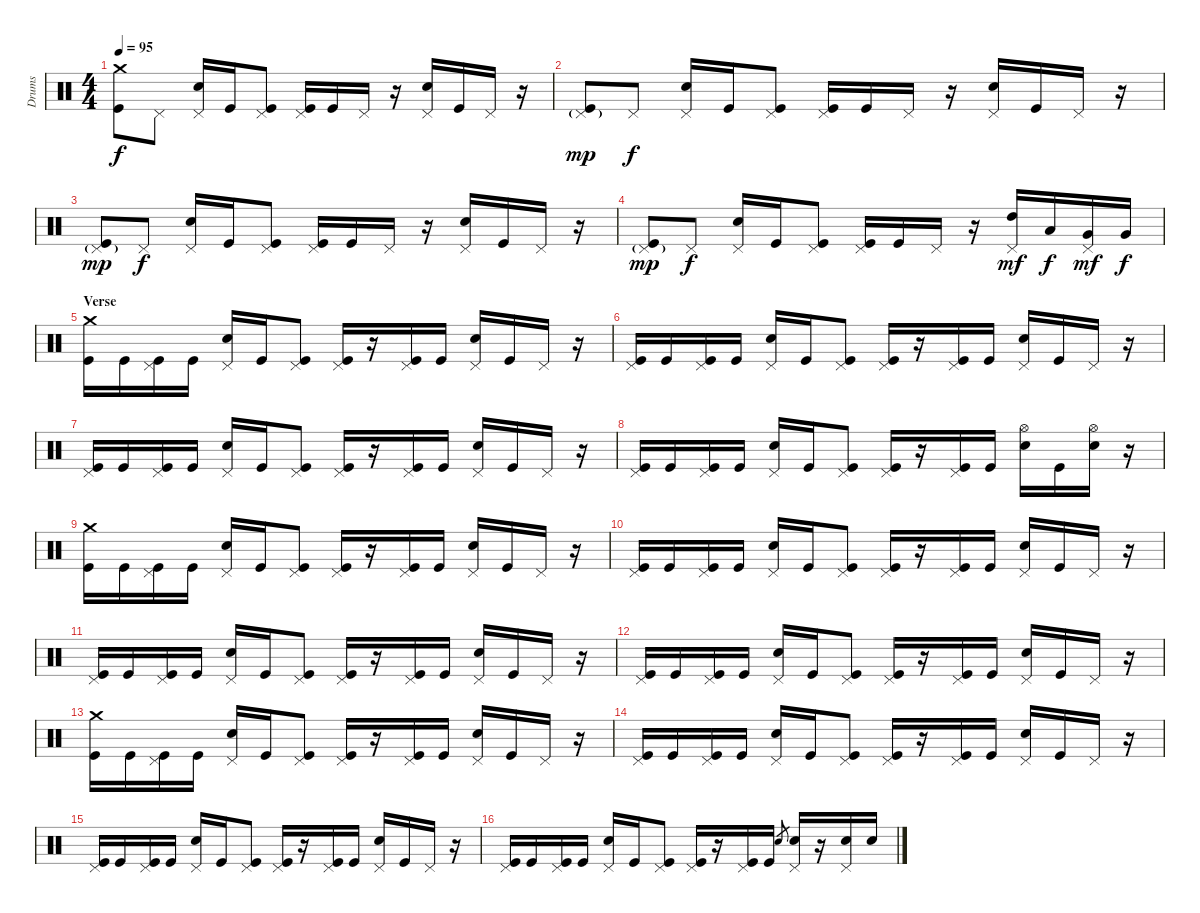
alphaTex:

\track ("Drums" "Drums") {instrument percussion}
\staff {score}
\articulation defaults
\ts (4 4)
\tempo 95
\clef neutral
\ks c
("Crash medium (hit)" "Kick (hit)").8{dy f} "Pedal Hi-Hat (hit)".8 ("Pedal Hi-Hat (hit)" "Snare (hit) 2").16 "Kick (hit)".16 ("Pedal Hi-Hat (hit)" "Kick (hit)").8 ("Pedal Hi-Hat (hit)" "Kick (hit)").16 "Kick (hit)".16 "Pedal Hi-Hat (hit)".16 r.16 ("Pedal Hi-Hat (hit)" "Snare (hit) 2").16 "Kick (hit)".16 "Pedal Hi-Hat (hit)".16 r.16 |
("Pedal Hi-Hat (hit)"{g} "Kick (hit)").8{dy mp} "Pedal Hi-Hat (hit)".8{dy f} ("Pedal Hi-Hat (hit)" "Snare (hit) 2").16 "Kick (hit)".16 ("Pedal Hi-Hat (hit)" "Kick (hit)").8 ("Pedal Hi-Hat (hit)" "Kick (hit)").16 "Kick (hit)".16 "Pedal Hi-Hat (hit)".16 r.16 ("Pedal Hi-Hat (hit)" "Snare (hit) 2").16 "Kick (hit)".16 "Pedal Hi-Hat (hit)".16 r.16 |
("Pedal Hi-Hat (hit)"{g} "Kick (hit)").8{dy mp} "Pedal Hi-Hat (hit)".8{dy f} ("Pedal Hi-Hat (hit)" "Snare (hit) 2").16 "Kick (hit)".16 ("Pedal Hi-Hat (hit)" "Kick (hit)").8 ("Pedal Hi-Hat (hit)" "Kick (hit)").16 "Kick (hit)".16 "Pedal Hi-Hat (hit)".16 r.16 ("Pedal Hi-Hat (hit)" "Snare (hit) 2").16 "Kick (hit)".16 "Pedal Hi-Hat (hit)".16 r.16 |
("Pedal Hi-Hat (hit)"{g} "Kick (hit)").8{dy mp} "Pedal Hi-Hat (hit)".8{dy f} ("Pedal Hi-Hat (hit)" "Snare (hit) 2").16 "Kick (hit)".16 ("Pedal Hi-Hat (hit)" "Kick (hit)").8 ("Pedal Hi-Hat (hit)" "Kick (hit)").16 "Kick (hit)".16 "Pedal Hi-Hat (hit)".16 r.16 ("Pedal Hi-Hat (hit)" "High Tom (hit)").16{dy mf} "Low Tom (hit)".16{dy f} ("Pedal Hi-Hat (hit)" "Very Low Tom (hit)").16{dy mf} "Very Low Tom (hit)".16{dy f} |
\section ("" "Verse")
("Crash medium (hit)" "Kick (hit)").16 "Kick (hit)".16 ("Pedal Hi-Hat (hit)" "Kick (hit)").16 "Kick (hit)".16 ("Pedal Hi-Hat (hit)" "Snare (hit) 2").16 "Kick (hit)".16 ("Pedal Hi-Hat (hit)" "Kick (hit)").8 ("Pedal Hi-Hat (hit)" "Kick (hit)").16 r.16 ("Pedal Hi-Hat (hit)" "Kick (hit)").16 "Kick (hit)".16 ("Pedal Hi-Hat (hit)" "Snare (hit) 2").16 "Kick (hit)".16 "Pedal Hi-Hat (hit)".16 r.16 |
("Pedal Hi-Hat (hit)" "Kick (hit)").16 "Kick (hit)".16 ("Pedal Hi-Hat (hit)" "Kick (hit)").16 "Kick (hit)".16 ("Pedal Hi-Hat (hit)" "Snare (hit) 2").16 "Kick (hit)".16 ("Pedal Hi-Hat (hit)" "Kick (hit)").8 ("Pedal Hi-Hat (hit)" "Kick (hit)").16 r.16 ("Pedal Hi-Hat (hit)" "Kick (hit)").16 "Kick (hit)".16 ("Pedal Hi-Hat (hit)" "Snare (hit) 2").16 "Kick (hit)".16 "Pedal Hi-Hat (hit)".16 r.16 |
("Pedal Hi-Hat (hit)" "Kick (hit)").16 "Kick (hit)".16 ("Pedal Hi-Hat (hit)" "Kick (hit)").16 "Kick (hit)".16 ("Pedal Hi-Hat (hit)" "Snare (hit) 2").16 "Kick (hit)".16 ("Pedal Hi-Hat (hit)" "Kick (hit)").8 ("Pedal Hi-Hat (hit)" "Kick (hit)").16 r.16 ("Pedal Hi-Hat (hit)" "Kick (hit)").16 "Kick (hit)".16 ("Pedal Hi-Hat (hit)" "Snare (hit) 2").16 "Kick (hit)".16 "Pedal Hi-Hat (hit)".16 r.16 |
("Pedal Hi-Hat (hit)" "Kick (hit)").16 "Kick (hit)".16 ("Pedal Hi-Hat (hit)" "Kick (hit)").16 "Kick (hit)".16 ("Pedal Hi-Hat (hit)" "Snare (hit) 2").16 "Kick (hit)".16 ("Pedal Hi-Hat (hit)" "Kick (hit)").8 ("Pedal Hi-Hat (hit)" "Kick (hit)").16 r.16 ("Pedal Hi-Hat (hit)" "Kick (hit)").16 "Kick (hit)".16 ("Hi-Hat (open)" "Snare (hit) 2").16 "Kick (hit)".16 ("Hi-Hat (open)" "Snare (hit) 2").16 r.16 |
("Crash medium (hit)" "Kick (hit)").16 "Kick (hit)".16 ("Pedal Hi-Hat (hit)" "Kick (hit)").16 "Kick (hit)".16 ("Pedal Hi-Hat (hit)" "Snare (hit) 2").16 "Kick (hit)".16 ("Pedal Hi-Hat (hit)" "Kick (hit)").8 ("Pedal Hi-Hat (hit)" "Kick (hit)").16 r.16 ("Pedal Hi-Hat (hit)" "Kick (hit)").16 "Kick (hit)".16 ("Pedal Hi-Hat (hit)" "Snare (hit) 2").16 "Kick (hit)".16 "Pedal Hi-Hat (hit)".16 r.16 |
("Pedal Hi-Hat (hit)" "Kick (hit)").16 "Kick (hit)".16 ("Pedal Hi-Hat (hit)" "Kick (hit)").16 "Kick (hit)".16 ("Pedal Hi-Hat (hit)" "Snare (hit) 2").16 "Kick (hit)".16 ("Pedal Hi-Hat (hit)" "Kick (hit)").8 ("Pedal Hi-Hat (hit)" "Kick (hit)").16 r.16 ("Pedal Hi-Hat (hit)" "Kick (hit)").16 "Kick (hit)".16 ("Pedal Hi-Hat (hit)" "Snare (hit) 2").16 "Kick (hit)".16 "Pedal Hi-Hat (hit)".16 r.16 |
("Pedal Hi-Hat (hit)" "Kick (hit)").16 "Kick (hit)".16 ("Pedal Hi-Hat (hit)" "Kick (hit)").16 "Kick (hit)".16 ("Pedal Hi-Hat (hit)" "Snare (hit) 2").16 "Kick (hit)".16 ("Pedal Hi-Hat (hit)" "Kick (hit)").8 ("Pedal Hi-Hat (hit)" "Kick (hit)").16 r.16 ("Pedal Hi-Hat (hit)" "Kick (hit)").16 "Kick (hit)".16 ("Pedal Hi-Hat (hit)" "Snare (hit) 2").16 "Kick (hit)".16 "Pedal Hi-Hat (hit)".16 r.16 |
("Pedal Hi-Hat (hit)" "Kick (hit)").16 "Kick (hit)".16 ("Pedal Hi-Hat (hit)" "Kick (hit)").16 "Kick (hit)".16 ("Pedal Hi-Hat (hit)" "Snare (hit) 2").16 "Kick (hit)".16 ("Pedal Hi-Hat (hit)" "Kick (hit)").8 ("Pedal Hi-Hat (hit)" "Kick (hit)").16 r.16 ("Pedal Hi-Hat (hit)" "Kick (hit)").16 "Kick (hit)".16 ("Pedal Hi-Hat (hit)" "Snare (hit) 2").16 "Kick (hit)".16 "Pedal Hi-Hat (hit)".16 r.16 |
("Crash medium (hit)" "Kick (hit)").16 "Kick (hit)".16 ("Pedal Hi-Hat (hit)" "Kick (hit)").16 "Kick (hit)".16 ("Pedal Hi-Hat (hit)" "Snare (hit) 2").16 "Kick (hit)".16 ("Pedal Hi-Hat (hit)" "Kick (hit)").8 ("Pedal Hi-Hat (hit)" "Kick (hit)").16 r.16 ("Pedal Hi-Hat (hit)" "Kick (hit)").16 "Kick (hit)".16 ("Pedal Hi-Hat (hit)" "Snare (hit) 2").16 "Kick (hit)".16 "Pedal Hi-Hat (hit)".16 r.16 |
("Pedal Hi-Hat (hit)" "Kick (hit)").16 "Kick (hit)".16 ("Pedal Hi-Hat (hit)" "Kick (hit)").16 "Kick (hit)".16 ("Pedal Hi-Hat (hit)" "Snare (hit) 2").16 "Kick (hit)".16 ("Pedal Hi-Hat (hit)" "Kick (hit)").8 ("Pedal Hi-Hat (hit)" "Kick (hit)").16 r.16 ("Pedal Hi-Hat (hit)" "Kick (hit)").16 "Kick (hit)".16 ("Pedal Hi-Hat (hit)" "Snare (hit) 2").16 "Kick (hit)".16 "Pedal Hi-Hat (hit)".16 r.16 |
("Pedal Hi-Hat (hit)" "Kick (hit)").16 "Kick (hit)".16 ("Pedal Hi-Hat (hit)" "Kick (hit)").16 "Kick (hit)".16 ("Pedal Hi-Hat (hit)" "Snare (hit) 2").16 "Kick (hit)".16 ("Pedal Hi-Hat (hit)" "Kick (hit)").8 ("Pedal Hi-Hat (hit)" "Kick (hit)").16 r.16 ("Pedal Hi-Hat (hit)" "Kick (hit)").16 "Kick (hit)".16 ("Pedal Hi-Hat (hit)" "Snare (hit) 2").16 "Kick (hit)".16 "Pedal Hi-Hat (hit)".16 r.16 |
("Pedal Hi-Hat (hit)" "Kick (hit)").16 "Kick (hit)".16 ("Pedal Hi-Hat (hit)" "Kick (hit)").16 "Kick (hit)".16 ("Pedal Hi-Hat (hit)" "Snare (hit) 2").16 "Kick (hit)".16 ("Pedal Hi-Hat (hit)" "Kick (hit)").8 ("Pedal Hi-Hat (hit)" "Kick (hit)").16 r.16 ("Pedal Hi-Hat (hit)" "Kick (hit)").16 "Kick (hit)".16 "Snare (hit) 2".8{gr} ("Pedal Hi-Hat (hit)" "Snare (hit) 2").16 r.16 ("Pedal Hi-Hat (hit)" "Snare (hit) 2").16 "Snare (hit) 2".16
